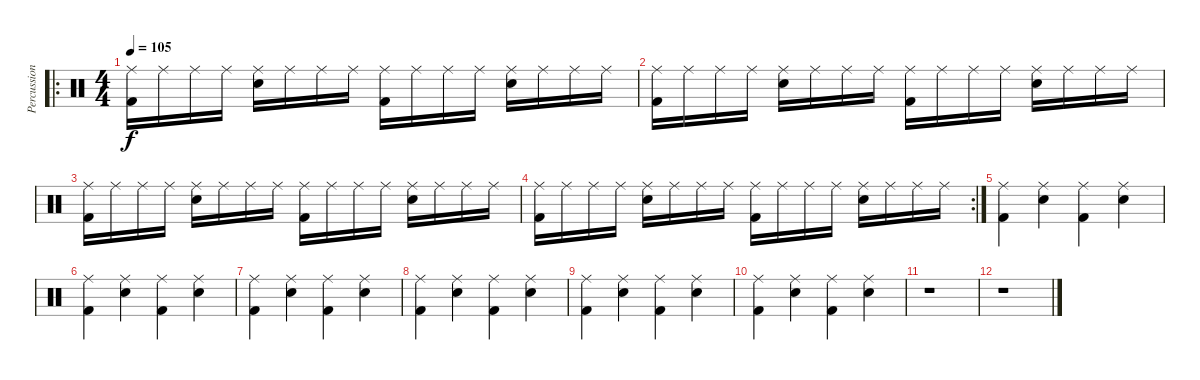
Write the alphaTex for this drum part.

\track ("Percussions" "Percussion") {instrument percussion}
\staff {score}
\articulation defaults
\ro
\ts (4 4)
\tempo 105
\clef neutral
\ks c
("Ride (middle)" "Kick (hit) 2").16{dy f} "Ride (middle)".16 "Ride (middle)".16 "Ride (middle)".16 ("Ride (middle)" "Electric Snare (hit)").16 "Ride (middle)".16 "Ride (middle)".16 "Ride (middle)".16 ("Ride (middle)" "Kick (hit) 2").16 "Ride (middle)".16 "Ride (middle)".16 "Ride (middle)".16 ("Ride (middle)" "Electric Snare (hit)").16 "Ride (middle)".16 "Ride (middle)".16 "Ride (middle)".16 |
("Ride (middle)" "Kick (hit) 2").16 "Ride (middle)".16 "Ride (middle)".16 "Ride (middle)".16 ("Ride (middle)" "Electric Snare (hit)").16 "Ride (middle)".16 "Ride (middle)".16 "Ride (middle)".16 ("Ride (middle)" "Kick (hit) 2").16 "Ride (middle)".16 "Ride (middle)".16 "Ride (middle)".16 ("Ride (middle)" "Electric Snare (hit)").16 "Ride (middle)".16 "Ride (middle)".16 "Ride (middle)".16 |
("Ride (middle)" "Kick (hit) 2").16 "Ride (middle)".16 "Ride (middle)".16 "Ride (middle)".16 ("Ride (middle)" "Electric Snare (hit)").16 "Ride (middle)".16 "Ride (middle)".16 "Ride (middle)".16 ("Ride (middle)" "Kick (hit) 2").16 "Ride (middle)".16 "Ride (middle)".16 "Ride (middle)".16 ("Ride (middle)" "Electric Snare (hit)").16 "Ride (middle)".16 "Ride (middle)".16 "Ride (middle)".16 |
\rc 2
("Ride (middle)" "Kick (hit) 2").16 "Ride (middle)".16 "Ride (middle)".16 "Ride (middle)".16 ("Ride (middle)" "Electric Snare (hit)").16 "Ride (middle)".16 "Ride (middle)".16 "Ride (middle)".16 ("Ride (middle)" "Kick (hit) 2").16 "Ride (middle)".16 "Ride (middle)".16 "Ride (middle)".16 ("Ride (middle)" "Electric Snare (hit)").16 "Ride (middle)".16 "Ride (middle)".16 "Ride (middle)".16 |
("Ride (middle)" "Kick (hit) 2").4 ("Ride (middle)" "Electric Snare (hit)").4 ("Ride (middle)" "Kick (hit) 2").4 ("Ride (middle)" "Electric Snare (hit)").4 |
("Ride (middle)" "Kick (hit) 2").4 ("Ride (middle)" "Electric Snare (hit)").4 ("Ride (middle)" "Kick (hit) 2").4 ("Ride (middle)" "Electric Snare (hit)").4 |
("Ride (middle)" "Kick (hit) 2").4 ("Ride (middle)" "Electric Snare (hit)").4 ("Ride (middle)" "Kick (hit) 2").4 ("Ride (middle)" "Electric Snare (hit)").4 |
("Ride (middle)" "Kick (hit) 2").4 ("Ride (middle)" "Electric Snare (hit)").4 ("Ride (middle)" "Kick (hit) 2").4 ("Ride (middle)" "Electric Snare (hit)").4 |
("Ride (middle)" "Kick (hit) 2").4 ("Ride (middle)" "Electric Snare (hit)").4 ("Ride (middle)" "Kick (hit) 2").4 ("Ride (middle)" "Electric Snare (hit)").4 |
("Ride (middle)" "Kick (hit) 2").4 ("Ride (middle)" "Electric Snare (hit)").4 ("Ride (middle)" "Kick (hit) 2").4 ("Ride (middle)" "Electric Snare (hit)").4 |
r.1 |
r.1
